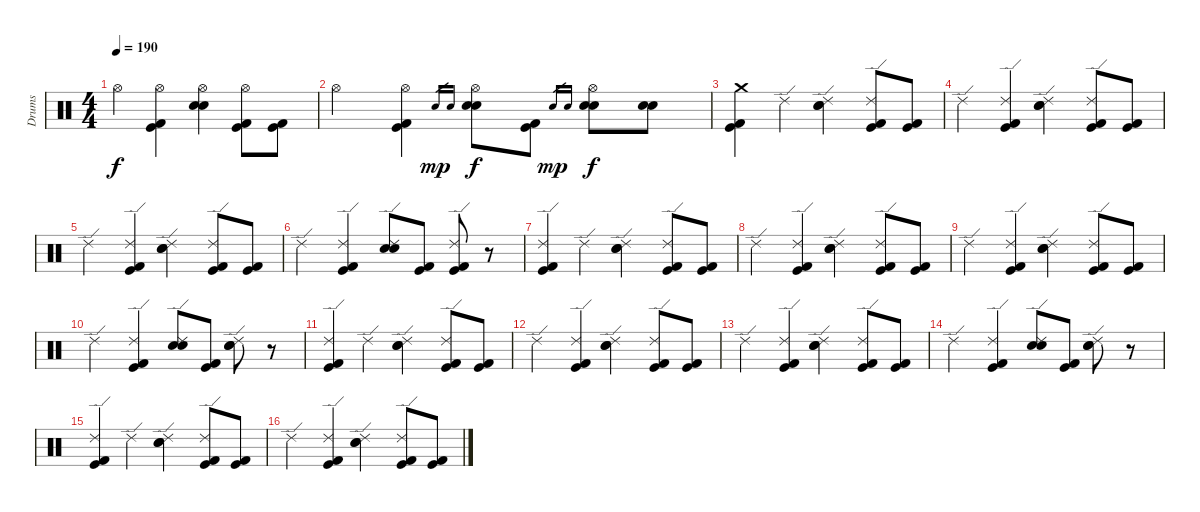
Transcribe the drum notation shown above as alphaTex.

\track ("Drums" "Drums") {instrument percussion}
\staff {score}
\articulation defaults
\ts (4 4)
\tempo 190
\clef neutral
\ks c "Hi-Hat (open)".4{dy f}
("Hi-Hat (open)" "Kick (hit) 2" "Kick (hit)").4 ("Hi-Hat (open)" "Snare (hit) 2" "Snare (hit) 2").4 ("Hi-Hat (open)" "Kick (hit) 2" "Kick (hit)").8 ("Kick (hit) 2" "Kick (hit)").8 |
"Hi-Hat (open)".4 ("Hi-Hat (open)" "Kick (hit) 2" "Kick (hit)").4 "Snare (hit) 2".16{gr dy mp} "Snare (hit) 2".16{gr} ("Hi-Hat (open)" "Snare (hit) 2" "Snare (hit) 2").8{dy f} ("Kick (hit) 2" "Kick (hit)").8 "Snare (hit) 2".16{gr dy mp} "Snare (hit) 2".16{gr} ("Hi-Hat (open)" "Snare (hit) 2" "Snare (hit) 2").8{dy f} ("Snare (hit) 2" "Snare (hit) 2").8 |
("Crash medium (hit)" "Kick (hit) 2" "Kick (hit)").4 "Ride (edge) 2".4 ("Ride (edge) 2" "Snare (hit) 2" "Snare (hit) 2").4 ("Ride (edge) 2" "Kick (hit) 2" "Kick (hit)").8 ("Kick (hit) 2" "Kick (hit)").8 |
"Ride (edge) 2".4 ("Ride (edge) 2" "Kick (hit) 2" "Kick (hit)").4 ("Ride (edge) 2" "Snare (hit) 2" "Snare (hit) 2").4 ("Ride (edge) 2" "Kick (hit) 2" "Kick (hit)").8 ("Kick (hit) 2" "Kick (hit)").8 |
"Ride (edge) 2".4 ("Ride (edge) 2" "Kick (hit) 2" "Kick (hit)").4 ("Ride (edge) 2" "Snare (hit) 2" "Snare (hit) 2").4 ("Ride (edge) 2" "Kick (hit) 2" "Kick (hit)").8 ("Kick (hit) 2" "Kick (hit)").8 |
"Ride (edge) 2".4 ("Ride (edge) 2" "Kick (hit) 2" "Kick (hit)").4 ("Ride (edge) 2" "Snare (hit) 2" "Snare (hit) 2").8 ("Kick (hit) 2" "Kick (hit)").8 ("Ride (edge) 2" "Kick (hit) 2" "Kick (hit)").8 r.8 |
("Ride (edge) 2" "Kick (hit) 2" "Kick (hit)").4 "Ride (edge) 2".4 ("Ride (edge) 2" "Snare (hit) 2" "Snare (hit) 2").4 ("Ride (edge) 2" "Kick (hit) 2" "Kick (hit)").8 ("Kick (hit) 2" "Kick (hit)").8 |
"Ride (edge) 2".4 ("Ride (edge) 2" "Kick (hit) 2" "Kick (hit)").4 ("Ride (edge) 2" "Snare (hit) 2" "Snare (hit) 2").4 ("Ride (edge) 2" "Kick (hit) 2" "Kick (hit)").8 ("Kick (hit) 2" "Kick (hit)").8 |
"Ride (edge) 2".4 ("Ride (edge) 2" "Kick (hit) 2" "Kick (hit)").4 ("Ride (edge) 2" "Snare (hit) 2" "Snare (hit) 2").4 ("Ride (edge) 2" "Kick (hit) 2" "Kick (hit)").8 ("Kick (hit) 2" "Kick (hit)").8 |
"Ride (edge) 2".4 ("Ride (edge) 2" "Kick (hit) 2" "Kick (hit)").4 ("Ride (edge) 2" "Snare (hit) 2" "Snare (hit) 2").8 ("Kick (hit) 2" "Kick (hit)").8 ("Ride (edge) 2" "Snare (hit) 2" "Snare (hit) 2").8 r.8 |
("Ride (edge) 2" "Kick (hit) 2" "Kick (hit)").4 "Ride (edge) 2".4 ("Ride (edge) 2" "Snare (hit) 2" "Snare (hit) 2").4 ("Ride (edge) 2" "Kick (hit) 2" "Kick (hit)").8 ("Kick (hit) 2" "Kick (hit)").8 |
"Ride (edge) 2".4 ("Ride (edge) 2" "Kick (hit) 2" "Kick (hit)").4 ("Ride (edge) 2" "Snare (hit) 2" "Snare (hit) 2").4 ("Ride (edge) 2" "Kick (hit) 2" "Kick (hit)").8 ("Kick (hit) 2" "Kick (hit)").8 |
"Ride (edge) 2".4 ("Ride (edge) 2" "Kick (hit) 2" "Kick (hit)").4 ("Ride (edge) 2" "Snare (hit) 2" "Snare (hit) 2").4 ("Ride (edge) 2" "Kick (hit) 2" "Kick (hit)").8 ("Kick (hit) 2" "Kick (hit)").8 |
"Ride (edge) 2".4 ("Ride (edge) 2" "Kick (hit) 2" "Kick (hit)").4 ("Ride (edge) 2" "Snare (hit) 2" "Snare (hit) 2").8 ("Kick (hit) 2" "Kick (hit)").8 ("Ride (edge) 2" "Snare (hit) 2" "Snare (hit) 2").8 r.8 |
("Ride (edge) 2" "Kick (hit) 2" "Kick (hit)").4 "Ride (edge) 2".4 ("Ride (edge) 2" "Snare (hit) 2" "Snare (hit) 2").4 ("Ride (edge) 2" "Kick (hit) 2" "Kick (hit)").8 ("Kick (hit) 2" "Kick (hit)").8 |
"Ride (edge) 2".4 ("Ride (edge) 2" "Kick (hit) 2" "Kick (hit)").4 ("Ride (edge) 2" "Snare (hit) 2" "Snare (hit) 2").4 ("Ride (edge) 2" "Kick (hit) 2" "Kick (hit)").8 ("Kick (hit) 2" "Kick (hit)").8
